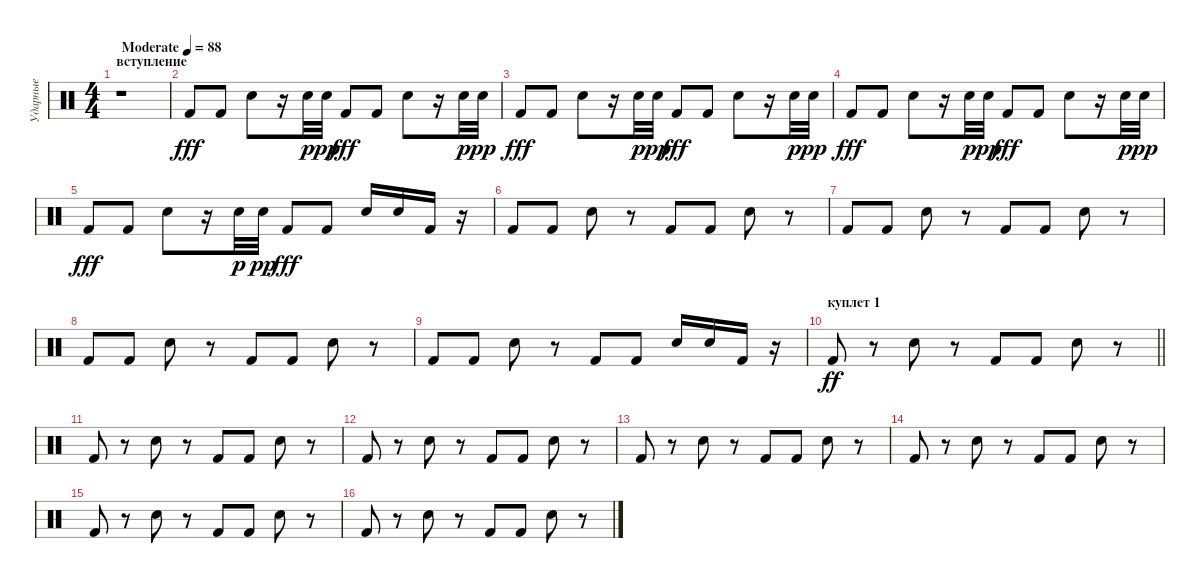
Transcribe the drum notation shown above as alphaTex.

\track ("Ударные" "Ударные") {instrument percussion}
\staff {score}
\articulation defaults
\ts (4 4)
\section ("" "вступление")
\tempo (88 "Moderate")
\clef neutral
\ks c
r.1{dy fff} |
\section ("" "")
"Kick (hit) 2".8 "Kick (hit) 2".8 "Electric Snare (hit)".8 r.16 "Snare (hit) 2".32{dy p} "Snare (hit) 2".32{dy pp} "Kick (hit) 2".8{dy fff} "Kick (hit) 2".8 "Electric Snare (hit)".8 r.16 "Snare (hit) 2".32{dy p} "Snare (hit) 2".32{dy pp} |
"Kick (hit) 2".8{dy fff} "Kick (hit) 2".8 "Electric Snare (hit)".8 r.16 "Snare (hit) 2".32{dy p} "Snare (hit) 2".32{dy pp} "Kick (hit) 2".8{dy fff} "Kick (hit) 2".8 "Electric Snare (hit)".8 r.16 "Snare (hit) 2".32{dy p} "Snare (hit) 2".32{dy pp} |
"Kick (hit) 2".8{dy fff} "Kick (hit) 2".8 "Electric Snare (hit)".8 r.16 "Snare (hit) 2".32{dy p} "Snare (hit) 2".32{dy pp} "Kick (hit) 2".8{dy fff} "Kick (hit) 2".8 "Electric Snare (hit)".8 r.16 "Snare (hit) 2".32{dy p} "Snare (hit) 2".32{dy pp} |
"Kick (hit) 2".8{dy fff} "Kick (hit) 2".8 "Electric Snare (hit)".8 r.16 "Snare (hit) 2".32{dy p} "Snare (hit) 2".32{dy pp} "Kick (hit) 2".8{dy fff} "Kick (hit) 2".8 "Electric Snare (hit)".16 "Electric Snare (hit)".16 "Kick (hit) 2".16 r.16 |
"Kick (hit) 2".8 "Kick (hit) 2".8 "Electric Snare (hit)".8 r.8 "Kick (hit) 2".8 "Kick (hit) 2".8 "Electric Snare (hit)".8 r.8 |
"Kick (hit) 2".8 "Kick (hit) 2".8 "Electric Snare (hit)".8 r.8 "Kick (hit) 2".8 "Kick (hit) 2".8 "Electric Snare (hit)".8 r.8 |
"Kick (hit) 2".8 "Kick (hit) 2".8 "Electric Snare (hit)".8 r.8 "Kick (hit) 2".8 "Kick (hit) 2".8 "Electric Snare (hit)".8 r.8 |
"Kick (hit) 2".8 "Kick (hit) 2".8 "Electric Snare (hit)".8 r.8 "Kick (hit) 2".8 "Kick (hit) 2".8 "Electric Snare (hit)".16 "Electric Snare (hit)".16 "Kick (hit) 2".16 r.16 |
\section ("" "куплет 1")
\barLineRight lightlight "Kick (hit) 2".8{dy ff}
r.8 "Electric Snare (hit)".8 r.8 "Kick (hit) 2".8 "Kick (hit) 2".8 "Electric Snare (hit)".8 r.8 |
"Kick (hit) 2".8 r.8 "Electric Snare (hit)".8 r.8 "Kick (hit) 2".8 "Kick (hit) 2".8 "Electric Snare (hit)".8 r.8 |
"Kick (hit) 2".8 r.8 "Electric Snare (hit)".8 r.8 "Kick (hit) 2".8 "Kick (hit) 2".8 "Electric Snare (hit)".8 r.8 |
"Kick (hit) 2".8 r.8 "Electric Snare (hit)".8 r.8 "Kick (hit) 2".8 "Kick (hit) 2".8 "Electric Snare (hit)".8 r.8 |
"Kick (hit) 2".8 r.8 "Electric Snare (hit)".8 r.8 "Kick (hit) 2".8 "Kick (hit) 2".8 "Electric Snare (hit)".8 r.8 |
"Kick (hit) 2".8 r.8 "Electric Snare (hit)".8 r.8 "Kick (hit) 2".8 "Kick (hit) 2".8 "Electric Snare (hit)".8 r.8 |
"Kick (hit) 2".8 r.8 "Electric Snare (hit)".8 r.8 "Kick (hit) 2".8 "Kick (hit) 2".8 "Electric Snare (hit)".8 r.8
